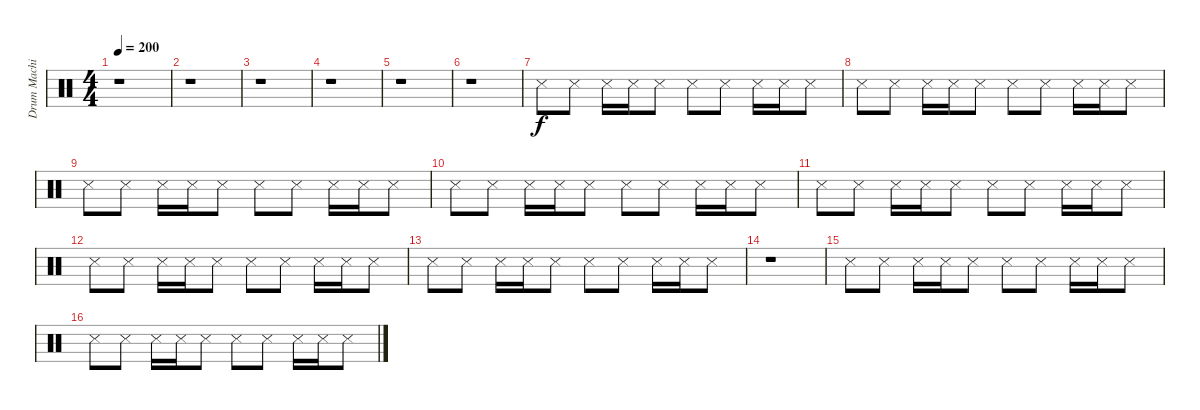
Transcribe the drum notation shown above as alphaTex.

\track ("Drum Machine (James)" "Drum Machi") {instrument percussion}
\staff {score}
\articulation defaults
\ts (4 4)
\tempo 200
\clef neutral
\ks c
r.1{dy f} |
r.1 |
r.1 |
r.1 |
r.1 |
r.1 |
"Metronome (hit)".8 "Metronome (hit)".8 "Metronome (hit)".16 "Metronome (hit)".16 "Metronome (hit)".8 "Metronome (hit)".8 "Metronome (hit)".8 "Metronome (hit)".16 "Metronome (hit)".16 "Metronome (hit)".8 |
"Metronome (hit)".8 "Metronome (hit)".8 "Metronome (hit)".16 "Metronome (hit)".16 "Metronome (hit)".8 "Metronome (hit)".8 "Metronome (hit)".8 "Metronome (hit)".16 "Metronome (hit)".16 "Metronome (hit)".8 |
"Metronome (hit)".8 "Metronome (hit)".8 "Metronome (hit)".16 "Metronome (hit)".16 "Metronome (hit)".8 "Metronome (hit)".8 "Metronome (hit)".8 "Metronome (hit)".16 "Metronome (hit)".16 "Metronome (hit)".8 |
"Metronome (hit)".8 "Metronome (hit)".8 "Metronome (hit)".16 "Metronome (hit)".16 "Metronome (hit)".8 "Metronome (hit)".8 "Metronome (hit)".8 "Metronome (hit)".16 "Metronome (hit)".16 "Metronome (hit)".8 |
"Metronome (hit)".8 "Metronome (hit)".8 "Metronome (hit)".16 "Metronome (hit)".16 "Metronome (hit)".8 "Metronome (hit)".8 "Metronome (hit)".8 "Metronome (hit)".16 "Metronome (hit)".16 "Metronome (hit)".8 |
"Metronome (hit)".8 "Metronome (hit)".8 "Metronome (hit)".16 "Metronome (hit)".16 "Metronome (hit)".8 "Metronome (hit)".8 "Metronome (hit)".8 "Metronome (hit)".16 "Metronome (hit)".16 "Metronome (hit)".8 |
"Metronome (hit)".8 "Metronome (hit)".8 "Metronome (hit)".16 "Metronome (hit)".16 "Metronome (hit)".8 "Metronome (hit)".8 "Metronome (hit)".8 "Metronome (hit)".16 "Metronome (hit)".16 "Metronome (hit)".8 |
r.1 |
"Metronome (hit)".8 "Metronome (hit)".8 "Metronome (hit)".16 "Metronome (hit)".16 "Metronome (hit)".8 "Metronome (hit)".8 "Metronome (hit)".8 "Metronome (hit)".16 "Metronome (hit)".16 "Metronome (hit)".8 |
"Metronome (hit)".8 "Metronome (hit)".8 "Metronome (hit)".16 "Metronome (hit)".16 "Metronome (hit)".8 "Metronome (hit)".8 "Metronome (hit)".8 "Metronome (hit)".16 "Metronome (hit)".16 "Metronome (hit)".8
